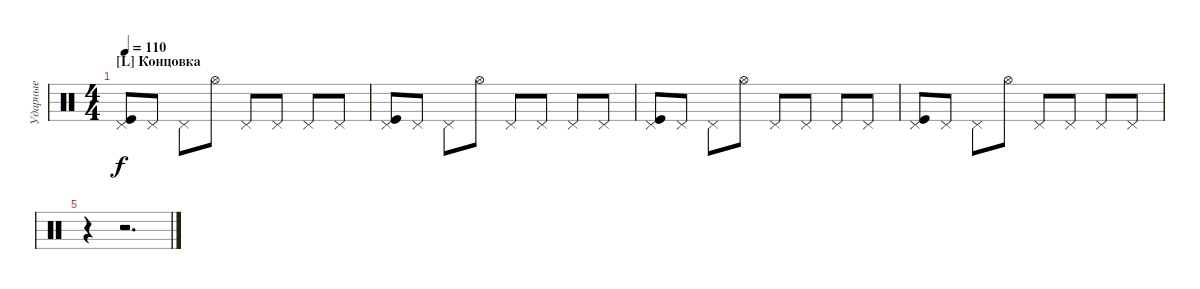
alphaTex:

\bracketExtendMode groupsimilarinstruments
\multiTrackTrackNamePolicy hidden
\firstSystemTrackNameMode fullname
\otherSystemsTrackNameMode fullname
\otherSystemsTrackNameOrientation horizontal
\defaultBarNumberDisplay FirstOfSystem
\track ("Ударные" "Drums") {multiBarRest instrument percussion}
\staff {score}
\articulation defaults
\ts (4 4)
\section ("L" "Концовка")
\tempo 110
\clef neutral
\ks c
("Pedal Hi-Hat (hit)" "Kick (hit)").8{dy f} "Pedal Hi-Hat (hit)".8 "Pedal Hi-Hat (hit)".8 "Hi-Hat (open)".8 "Pedal Hi-Hat (hit)".8 "Pedal Hi-Hat (hit)".8 "Pedal Hi-Hat (hit)".8 "Pedal Hi-Hat (hit)".8 |
("Pedal Hi-Hat (hit)" "Kick (hit)").8 "Pedal Hi-Hat (hit)".8 "Pedal Hi-Hat (hit)".8 "Hi-Hat (open)".8 "Pedal Hi-Hat (hit)".8 "Pedal Hi-Hat (hit)".8 "Pedal Hi-Hat (hit)".8 "Pedal Hi-Hat (hit)".8 |
("Pedal Hi-Hat (hit)" "Kick (hit)").8 "Pedal Hi-Hat (hit)".8 "Pedal Hi-Hat (hit)".8 "Hi-Hat (open)".8 "Pedal Hi-Hat (hit)".8 "Pedal Hi-Hat (hit)".8 "Pedal Hi-Hat (hit)".8 "Pedal Hi-Hat (hit)".8 |
("Pedal Hi-Hat (hit)" "Kick (hit)").8 "Pedal Hi-Hat (hit)".8 "Pedal Hi-Hat (hit)".8 "Hi-Hat (open)".8 "Pedal Hi-Hat (hit)".8 "Pedal Hi-Hat (hit)".8 "Pedal Hi-Hat (hit)".8 "Pedal Hi-Hat (hit)".8 |
r.4 r.2{d}
